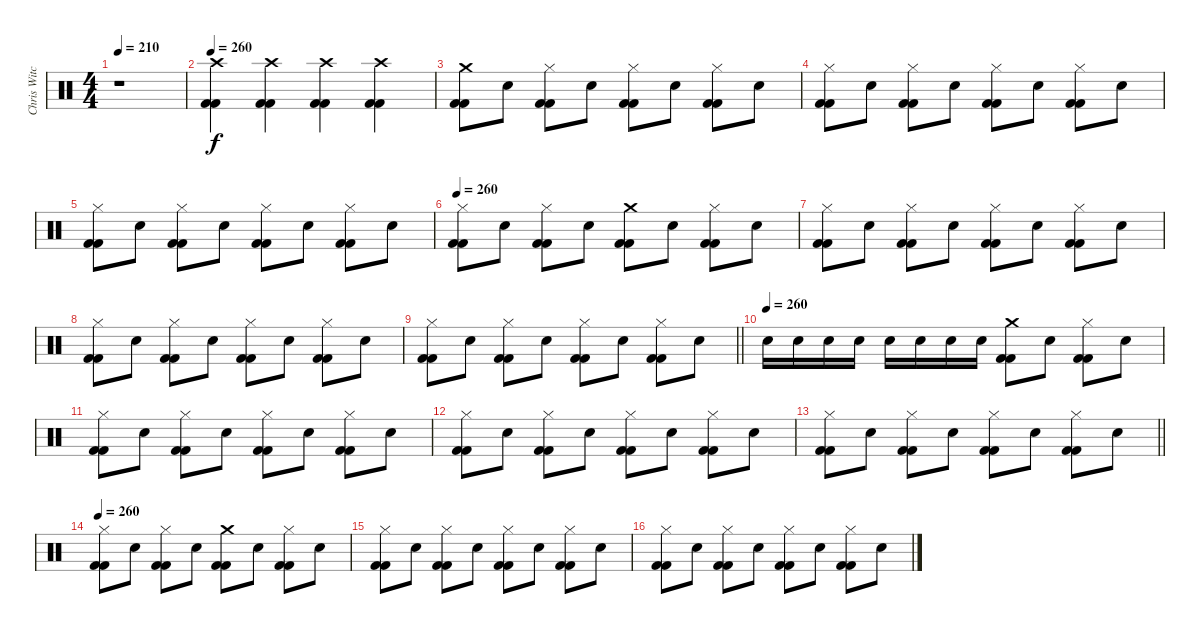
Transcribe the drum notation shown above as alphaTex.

\track ("Chris Witchhunter" "Chris Witc") {instrument percussion}
\staff {score}
\articulation defaults
\ts (4 4)
\tempo 210
\clef neutral
\ks c
r.1{dy f} |
\tempo 260
("Crash high (hit)" "Kick (hit) 2" "Kick (hit) 2").4 ("Crash high (hit)" "Kick (hit) 2" "Kick (hit) 2").4 ("Crash high (hit)" "Kick (hit) 2" "Kick (hit) 2").4 ("Crash high (hit)" "Kick (hit) 2" "Kick (hit) 2").4 |
("Crash medium (hit)" "Kick (hit) 2" "Kick (hit) 2").8 "Electric Snare (hit)".8 ("Hi-Hat (closed)" "Kick (hit) 2" "Kick (hit) 2").8 "Electric Snare (hit)".8 ("Hi-Hat (closed)" "Kick (hit) 2" "Kick (hit) 2").8 "Electric Snare (hit)".8 ("Hi-Hat (closed)" "Kick (hit) 2" "Kick (hit) 2").8 "Electric Snare (hit)".8 |
("Hi-Hat (closed)" "Kick (hit) 2" "Kick (hit) 2").8 "Electric Snare (hit)".8 ("Hi-Hat (closed)" "Kick (hit) 2" "Kick (hit) 2").8 "Electric Snare (hit)".8 ("Hi-Hat (closed)" "Kick (hit) 2" "Kick (hit) 2").8 "Electric Snare (hit)".8 ("Hi-Hat (closed)" "Kick (hit) 2" "Kick (hit) 2").8 "Electric Snare (hit)".8 |
("Hi-Hat (closed)" "Kick (hit) 2" "Kick (hit) 2").8 "Electric Snare (hit)".8 ("Hi-Hat (closed)" "Kick (hit) 2" "Kick (hit) 2").8 "Electric Snare (hit)".8 ("Hi-Hat (closed)" "Kick (hit) 2" "Kick (hit) 2").8 "Electric Snare (hit)".8 ("Hi-Hat (closed)" "Kick (hit) 2" "Kick (hit) 2").8 "Electric Snare (hit)".8 |
\tempo 260
("Hi-Hat (closed)" "Kick (hit) 2" "Kick (hit) 2").8 "Electric Snare (hit)".8 ("Hi-Hat (closed)" "Kick (hit) 2" "Kick (hit) 2").8 "Electric Snare (hit)".8 ("Crash medium (hit)" "Kick (hit) 2" "Kick (hit) 2").8 "Electric Snare (hit)".8 ("Hi-Hat (closed)" "Kick (hit) 2" "Kick (hit) 2").8 "Electric Snare (hit)".8 |
("Hi-Hat (closed)" "Kick (hit) 2" "Kick (hit) 2").8 "Electric Snare (hit)".8 ("Hi-Hat (closed)" "Kick (hit) 2" "Kick (hit) 2").8 "Electric Snare (hit)".8 ("Hi-Hat (closed)" "Kick (hit) 2" "Kick (hit) 2").8 "Electric Snare (hit)".8 ("Hi-Hat (closed)" "Kick (hit) 2" "Kick (hit) 2").8 "Electric Snare (hit)".8 |
("Hi-Hat (closed)" "Kick (hit) 2" "Kick (hit) 2").8 "Electric Snare (hit)".8 ("Hi-Hat (closed)" "Kick (hit) 2" "Kick (hit) 2").8 "Electric Snare (hit)".8 ("Hi-Hat (closed)" "Kick (hit) 2" "Kick (hit) 2").8 "Electric Snare (hit)".8 ("Hi-Hat (closed)" "Kick (hit) 2" "Kick (hit) 2").8 "Electric Snare (hit)".8 |
\barLineRight lightlight
("Hi-Hat (closed)" "Kick (hit) 2" "Kick (hit) 2").8 "Electric Snare (hit)".8 ("Hi-Hat (closed)" "Kick (hit) 2" "Kick (hit) 2").8 "Electric Snare (hit)".8 ("Hi-Hat (closed)" "Kick (hit) 2" "Kick (hit) 2").8 "Electric Snare (hit)".8 ("Hi-Hat (closed)" "Kick (hit) 2" "Kick (hit) 2").8 "Electric Snare (hit)".8 |
\tempo (260)
"Electric Snare (hit)".16 "Electric Snare (hit)".16 "Electric Snare (hit)".16 "Electric Snare (hit)".16 "Electric Snare (hit)".16 "Electric Snare (hit)".16 "Electric Snare (hit)".16 "Electric Snare (hit)".16 ("Crash medium (hit)" "Kick (hit) 2" "Kick (hit) 2").8 "Electric Snare (hit)".8 ("Hi-Hat (closed)" "Kick (hit) 2" "Kick (hit) 2").8 "Electric Snare (hit)".8 |
("Hi-Hat (closed)" "Kick (hit) 2" "Kick (hit) 2").8 "Electric Snare (hit)".8 ("Hi-Hat (closed)" "Kick (hit) 2" "Kick (hit) 2").8 "Electric Snare (hit)".8 ("Hi-Hat (closed)" "Kick (hit) 2" "Kick (hit) 2").8 "Electric Snare (hit)".8 ("Hi-Hat (closed)" "Kick (hit) 2" "Kick (hit) 2").8 "Electric Snare (hit)".8 |
("Hi-Hat (closed)" "Kick (hit) 2" "Kick (hit) 2").8 "Electric Snare (hit)".8 ("Hi-Hat (closed)" "Kick (hit) 2" "Kick (hit) 2").8 "Electric Snare (hit)".8 ("Hi-Hat (closed)" "Kick (hit) 2" "Kick (hit) 2").8 "Electric Snare (hit)".8 ("Hi-Hat (closed)" "Kick (hit) 2" "Kick (hit) 2").8 "Electric Snare (hit)".8 |
\barLineRight lightlight
("Hi-Hat (closed)" "Kick (hit) 2" "Kick (hit) 2").8 "Electric Snare (hit)".8 ("Hi-Hat (closed)" "Kick (hit) 2" "Kick (hit) 2").8 "Electric Snare (hit)".8 ("Hi-Hat (closed)" "Kick (hit) 2" "Kick (hit) 2").8 "Electric Snare (hit)".8 ("Hi-Hat (closed)" "Kick (hit) 2" "Kick (hit) 2").8 "Electric Snare (hit)".8 |
\tempo 260
("Hi-Hat (closed)" "Kick (hit) 2" "Kick (hit) 2").8 "Electric Snare (hit)".8 ("Hi-Hat (closed)" "Kick (hit) 2" "Kick (hit) 2").8 "Electric Snare (hit)".8 ("Crash medium (hit)" "Kick (hit) 2" "Kick (hit) 2").8 "Electric Snare (hit)".8 ("Hi-Hat (closed)" "Kick (hit) 2" "Kick (hit) 2").8 "Electric Snare (hit)".8 |
("Hi-Hat (closed)" "Kick (hit) 2" "Kick (hit) 2").8 "Electric Snare (hit)".8 ("Hi-Hat (closed)" "Kick (hit) 2" "Kick (hit) 2").8 "Electric Snare (hit)".8 ("Hi-Hat (closed)" "Kick (hit) 2" "Kick (hit) 2").8 "Electric Snare (hit)".8 ("Hi-Hat (closed)" "Kick (hit) 2" "Kick (hit) 2").8 "Electric Snare (hit)".8 |
("Hi-Hat (closed)" "Kick (hit) 2" "Kick (hit) 2").8 "Electric Snare (hit)".8 ("Hi-Hat (closed)" "Kick (hit) 2" "Kick (hit) 2").8 "Electric Snare (hit)".8 ("Hi-Hat (closed)" "Kick (hit) 2" "Kick (hit) 2").8 "Electric Snare (hit)".8 ("Hi-Hat (closed)" "Kick (hit) 2" "Kick (hit) 2").8 "Electric Snare (hit)".8
